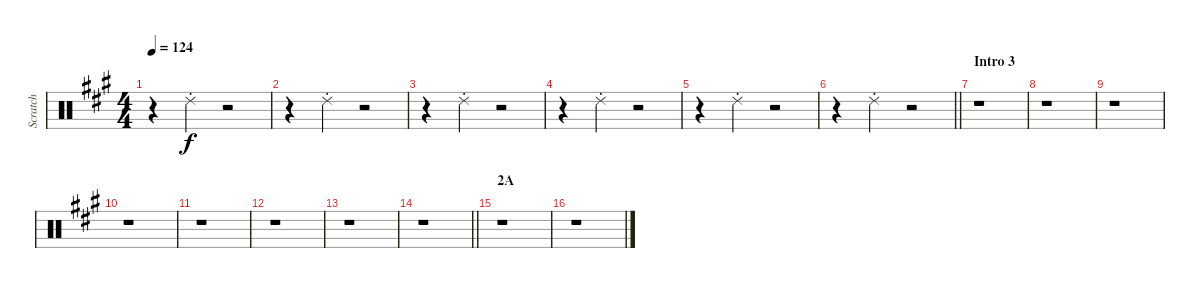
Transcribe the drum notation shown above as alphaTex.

\track ("Scratch" "Scratch") {instrument percussion}
\staff {score}
\articulation defaults
\ts (4 4)
\tempo 124
\clef neutral
\ks a
r.4{dy f} "Ride (choke) 2".4 r.2 |
r.4 "Ride (choke) 2".4 r.2 |
r.4 "Ride (choke) 2".4 r.2 |
r.4 "Ride (choke) 2".4 r.2 |
r.4 "Ride (choke) 2".4 r.2 |
\barLineRight lightlight
r.4 "Ride (choke) 2".4 r.2 |
\section ("" "Intro 3")
r.1 |
r.1 |
r.1 |
r.1 |
r.1 |
r.1 |
r.1 |
\barLineRight lightlight
r.1 |
\section ("" "2A")
r.1 |
r.1
